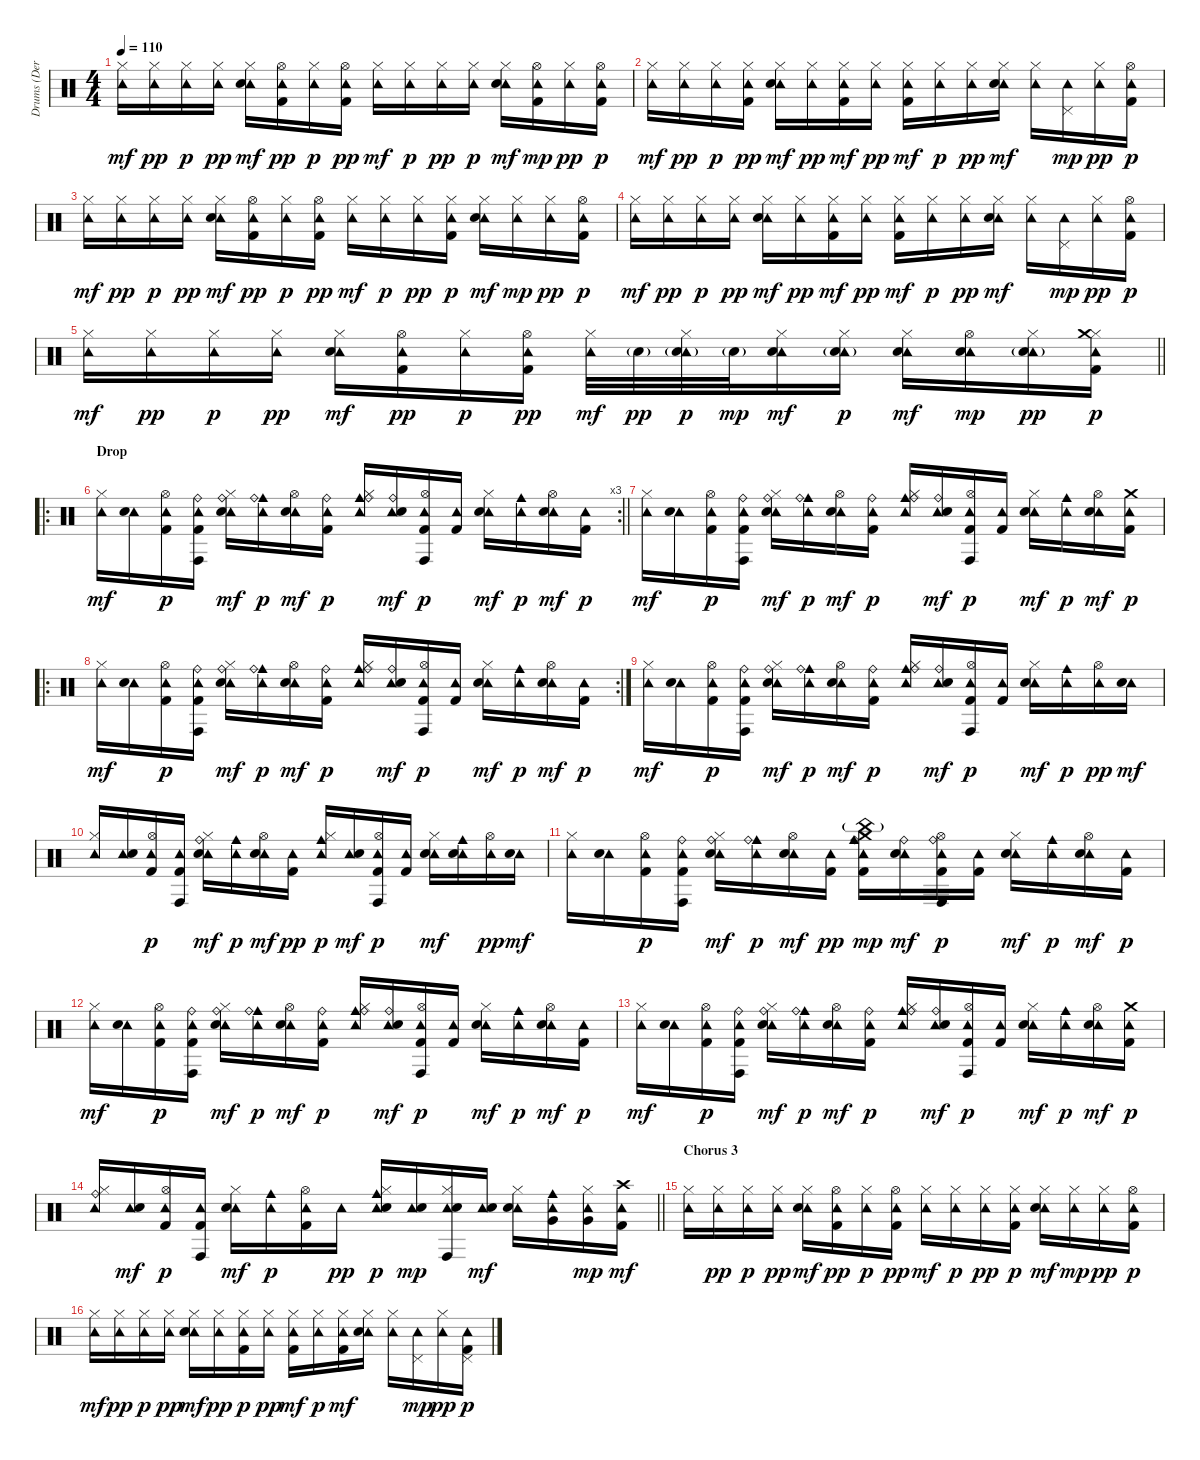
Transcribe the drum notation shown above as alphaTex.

\track ("Drums (Derrick McKenzie)" "Drums (Der") {instrument percussion}
\staff {score}
\articulation defaults
\ts (4 4)
\tempo 110
\clef neutral
\ks c
("Hi-Hat (closed)" "Tambourine (hit)").16{dy mf} ("Hi-Hat (closed)" "Tambourine (hit)").16{dy pp} ("Hi-Hat (closed)" "Tambourine (hit)").16{dy p} ("Hi-Hat (closed)" "Tambourine (hit)").16{dy pp} ("Hi-Hat (closed)" "Tambourine (hit)" "Electric Snare (hit)").16{dy mf} ("Hi-Hat (open)" "Tambourine (hit)" "Kick (hit) 2").16{dy pp} ("Hi-Hat (closed)" "Tambourine (hit)").16{dy p} ("Hi-Hat (open)" "Tambourine (hit)" "Kick (hit) 2").16{dy pp} ("Hi-Hat (closed)" "Tambourine (hit)").16{dy mf} ("Hi-Hat (closed)" "Tambourine (hit)").16{dy p} ("Hi-Hat (closed)" "Tambourine (hit)").16{dy pp} ("Hi-Hat (closed)" "Tambourine (hit)").16{dy p} ("Hi-Hat (closed)" "Tambourine (hit)" "Electric Snare (hit)").16{dy mf} ("Hi-Hat (open)" "Tambourine (hit)" "Kick (hit) 2").16{dy mp} ("Hi-Hat (closed)" "Tambourine (hit)").16{dy pp} ("Hi-Hat (open)" "Tambourine (hit)" "Kick (hit) 2").16{dy p} |
("Hi-Hat (closed)" "Tambourine (hit)").16{dy mf} ("Hi-Hat (closed)" "Tambourine (hit)").16{dy pp} ("Hi-Hat (closed)" "Tambourine (hit)").16{dy p} ("Hi-Hat (closed)" "Tambourine (hit)" "Kick (hit) 2").16{dy pp} ("Hi-Hat (closed)" "Tambourine (hit)" "Electric Snare (hit)").16{dy mf} ("Hi-Hat (closed)" "Tambourine (hit)").16{dy pp} ("Hi-Hat (closed)" "Tambourine (hit)" "Kick (hit) 2").16{dy mf} ("Hi-Hat (closed)" "Tambourine (hit)").16{dy pp} ("Hi-Hat (closed)" "Tambourine (hit)" "Kick (hit) 2").16{dy mf} ("Hi-Hat (closed)" "Tambourine (hit)").16{dy p} ("Hi-Hat (closed)" "Tambourine (hit)").16{dy pp} ("Hi-Hat (closed)" "Tambourine (hit)" "Electric Snare (hit)").16{dy mf} ("Hi-Hat (closed)" "Tambourine (hit)").16 ("Pedal Hi-Hat (hit)" "Tambourine (hit)").16{dy mp} ("Hi-Hat (closed)" "Tambourine (hit)").16{dy pp} ("Hi-Hat (open)" "Tambourine (hit)" "Kick (hit) 2").16{dy p} |
("Hi-Hat (closed)" "Tambourine (hit)").16{dy mf} ("Hi-Hat (closed)" "Tambourine (hit)").16{dy pp} ("Hi-Hat (closed)" "Tambourine (hit)").16{dy p} ("Hi-Hat (closed)" "Tambourine (hit)").16{dy pp} ("Hi-Hat (closed)" "Tambourine (hit)" "Electric Snare (hit)").16{dy mf} ("Hi-Hat (open)" "Tambourine (hit)" "Kick (hit) 2").16{dy pp} ("Hi-Hat (closed)" "Tambourine (hit)").16{dy p} ("Hi-Hat (open)" "Tambourine (hit)" "Kick (hit) 2").16{dy pp} ("Hi-Hat (closed)" "Tambourine (hit)").16{dy mf} ("Hi-Hat (closed)" "Tambourine (hit)").16{dy p} ("Hi-Hat (closed)" "Tambourine (hit)").16{dy pp} ("Hi-Hat (closed)" "Tambourine (hit)" "Kick (hit) 2").16{dy p} ("Hi-Hat (closed)" "Tambourine (hit)" "Electric Snare (hit)").16{dy mf} ("Hi-Hat (closed)" "Tambourine (hit)").16{dy mp} ("Hi-Hat (closed)" "Tambourine (hit)").16{dy pp} ("Hi-Hat (open)" "Tambourine (hit)" "Kick (hit) 2").16{dy p} |
("Hi-Hat (closed)" "Tambourine (hit)").16{dy mf} ("Hi-Hat (closed)" "Tambourine (hit)").16{dy pp} ("Hi-Hat (closed)" "Tambourine (hit)").16{dy p} ("Hi-Hat (closed)" "Tambourine (hit)").16{dy pp} ("Hi-Hat (closed)" "Tambourine (hit)" "Electric Snare (hit)").16{dy mf} ("Hi-Hat (closed)" "Tambourine (hit)").16{dy pp} ("Hi-Hat (closed)" "Tambourine (hit)" "Kick (hit) 2").16{dy mf} ("Hi-Hat (closed)" "Tambourine (hit)").16{dy pp} ("Hi-Hat (closed)" "Tambourine (hit)" "Kick (hit) 2").16{dy mf} ("Hi-Hat (closed)" "Tambourine (hit)").16{dy p} ("Hi-Hat (closed)" "Tambourine (hit)").16{dy pp} ("Hi-Hat (closed)" "Tambourine (hit)" "Electric Snare (hit)").16{dy mf} ("Hi-Hat (closed)" "Tambourine (hit)").16 ("Pedal Hi-Hat (hit)" "Tambourine (hit)").16{dy mp} ("Hi-Hat (closed)" "Tambourine (hit)").16{dy pp} ("Hi-Hat (open)" "Tambourine (hit)" "Kick (hit) 2").16{dy p} |
\barLineRight lightlight
("Hi-Hat (closed)" "Tambourine (hit)").16{dy mf} ("Hi-Hat (closed)" "Tambourine (hit)").16{dy pp} ("Hi-Hat (closed)" "Tambourine (hit)").16{dy p} ("Hi-Hat (closed)" "Tambourine (hit)").16{dy pp} ("Hi-Hat (closed)" "Tambourine (hit)" "Electric Snare (hit)").16{dy mf} ("Hi-Hat (open)" "Tambourine (hit)" "Kick (hit) 2").16{dy pp} ("Hi-Hat (closed)" "Tambourine (hit)").16{dy p} ("Hi-Hat (open)" "Tambourine (hit)" "Kick (hit) 2").16{dy pp} ("Hi-Hat (closed)" "Tambourine (hit)").32{dy mf} "Electric Snare (hit)"{g}.32{dy pp} ("Hi-Hat (closed)" "Tambourine (hit)" "Electric Snare (hit)"{g}).32{dy p} "Electric Snare (hit)"{g}.32{dy mp} ("Hi-Hat (closed)" "Tambourine (hit)" "Electric Snare (hit)").16{dy mf} ("Hi-Hat (closed)" "Tambourine (hit)" "Electric Snare (hit)"{g}).16{dy p} ("Hi-Hat (closed)" "Tambourine (hit)" "Electric Snare (hit)").16{dy mf} ("Hi-Hat (open)" "Tambourine (hit)" "Electric Snare (hit)").16{dy mp} ("Hi-Hat (closed)" "Tambourine (hit)" "Electric Snare (hit)"{g}).16{dy pp} ("Hi-Hat (closed)" "Tambourine (hit)" "Crash medium (hit)" "Kick (hit) 2").16{dy p} |
\ro
\rc 3
\section ("" "Drop")
\barLineRight lightlight
("Hi-Hat (closed)" "Tambourine (hit)").16{dy mf} ("Tambourine (hit)" "Electric Snare (hit)").16 ("Hi-Hat (open)" "Tambourine (hit)" "Kick (hit) 2").16{dy p} ("Tambourine (hit)" "Conga high (hit)" "Ride (bell)" "Kick (hit) 2").16 ("Hi-Hat (closed)" "Tambourine (hit)" "Ride (bell)" "Electric Snare (hit)").16{dy mf} ("Tambourine (hit)" "Cowbell medium (hit)" "Ride (bell)").16{dy p} ("Hi-Hat (open)" "Tambourine (hit)" "Electric Snare (hit)").16{dy mf} ("Tambourine (hit)" "Ride (bell)" "Kick (hit) 2").16{dy p} ("Hi-Hat (closed)" "Tambourine (hit)" "Cowbell medium (hit)" "Ride (bell)").16 ("Tambourine (hit)" "Ride (bell)" "Electric Snare (hit)").16{dy mf} ("Hi-Hat (open)" "Tambourine (hit)" "Conga high (hit)" "Kick (hit) 2").16{dy p} ("Tambourine (hit)" "Kick (hit) 2").16 ("Hi-Hat (closed)" "Tambourine (hit)" "Electric Snare (hit)").16{dy mf} ("Tambourine (hit)" "Cowbell medium (hit)").16{dy p} ("Hi-Hat (open)" "Tambourine (hit)" "Electric Snare (hit)").16{dy mf} ("Tambourine (hit)" "Kick (hit) 2").16{dy p} |
("Hi-Hat (closed)" "Tambourine (hit)").16{dy mf} ("Tambourine (hit)" "Electric Snare (hit)").16 ("Hi-Hat (open)" "Tambourine (hit)" "Kick (hit) 2").16{dy p} ("Tambourine (hit)" "Conga high (hit)" "Ride (bell)" "Kick (hit) 2").16 ("Hi-Hat (closed)" "Tambourine (hit)" "Ride (bell)" "Electric Snare (hit)").16{dy mf} ("Tambourine (hit)" "Cowbell medium (hit)" "Ride (bell)").16{dy p} ("Hi-Hat (open)" "Tambourine (hit)" "Electric Snare (hit)").16{dy mf} ("Tambourine (hit)" "Ride (bell)" "Kick (hit) 2").16{dy p} ("Hi-Hat (closed)" "Tambourine (hit)" "Cowbell medium (hit)" "Ride (bell)").16 ("Tambourine (hit)" "Ride (bell)" "Electric Snare (hit)").16{dy mf} ("Hi-Hat (open)" "Tambourine (hit)" "Conga high (hit)" "Kick (hit) 2").16{dy p} ("Tambourine (hit)" "Kick (hit) 2").16 ("Hi-Hat (closed)" "Tambourine (hit)" "Electric Snare (hit)").16{dy mf} ("Tambourine (hit)" "Cowbell medium (hit)").16{dy p} ("Hi-Hat (open)" "Tambourine (hit)" "Electric Snare (hit)").16{dy mf} ("Crash medium (hit)" "Tambourine (hit)" "Kick (hit) 2").16{dy p} |
\ro
\rc 2
("Hi-Hat (closed)" "Tambourine (hit)").16{dy mf} ("Tambourine (hit)" "Electric Snare (hit)").16 ("Hi-Hat (open)" "Tambourine (hit)" "Kick (hit) 2").16{dy p} ("Tambourine (hit)" "Conga high (hit)" "Ride (bell)" "Kick (hit) 2").16 ("Hi-Hat (closed)" "Tambourine (hit)" "Ride (bell)" "Electric Snare (hit)").16{dy mf} ("Tambourine (hit)" "Cowbell medium (hit)" "Ride (bell)").16{dy p} ("Hi-Hat (open)" "Tambourine (hit)" "Electric Snare (hit)").16{dy mf} ("Tambourine (hit)" "Ride (bell)" "Kick (hit) 2").16{dy p} ("Hi-Hat (closed)" "Tambourine (hit)" "Cowbell medium (hit)" "Ride (bell)").16 ("Tambourine (hit)" "Ride (bell)" "Electric Snare (hit)").16{dy mf} ("Hi-Hat (open)" "Tambourine (hit)" "Conga high (hit)" "Kick (hit) 2").16{dy p} ("Tambourine (hit)" "Kick (hit) 2").16 ("Hi-Hat (closed)" "Tambourine (hit)" "Electric Snare (hit)").16{dy mf} ("Tambourine (hit)" "Cowbell medium (hit)").16{dy p} ("Hi-Hat (open)" "Tambourine (hit)" "Electric Snare (hit)").16{dy mf} ("Tambourine (hit)" "Kick (hit) 2").16{dy p} |
("Hi-Hat (closed)" "Tambourine (hit)").16{dy mf} ("Tambourine (hit)" "Electric Snare (hit)").16 ("Hi-Hat (open)" "Tambourine (hit)" "Kick (hit) 2").16{dy p} ("Tambourine (hit)" "Conga high (hit)" "Ride (bell)" "Kick (hit) 2").16 ("Hi-Hat (closed)" "Tambourine (hit)" "Ride (bell)" "Electric Snare (hit)").16{dy mf} ("Tambourine (hit)" "Cowbell medium (hit)" "Ride (bell)").16{dy p} ("Hi-Hat (open)" "Tambourine (hit)" "Electric Snare (hit)").16{dy mf} ("Tambourine (hit)" "Ride (bell)" "Kick (hit) 2").16{dy p} ("Hi-Hat (closed)" "Tambourine (hit)" "Cowbell medium (hit)" "Ride (bell)").16 ("Tambourine (hit)" "Ride (bell)" "Electric Snare (hit)").16{dy mf} ("Hi-Hat (open)" "Tambourine (hit)" "Conga high (hit)" "Kick (hit) 2").16{dy p} ("Tambourine (hit)" "Kick (hit) 2").16 ("Hi-Hat (closed)" "Tambourine (hit)" "Electric Snare (hit)").16{dy mf} ("Tambourine (hit)" "Cowbell medium (hit)").16{dy p} ("Hi-Hat (open)" "Tambourine (hit)").16{dy pp} ("Tambourine (hit)" "Electric Snare (hit)").16{dy mf} |
("Hi-Hat (closed)" "Tambourine (hit)").16 ("Tambourine (hit)" "Electric Snare (hit)").16 ("Hi-Hat (open)" "Tambourine (hit)" "Kick (hit) 2").16{dy p} ("Tambourine (hit)" "Conga high (hit)" "Kick (hit) 2").16 ("Hi-Hat (closed)" "Tambourine (hit)" "Ride (bell)" "Electric Snare (hit)").16{dy mf} ("Tambourine (hit)" "Cowbell medium (hit)").16{dy p} ("Hi-Hat (open)" "Tambourine (hit)" "Electric Snare (hit)").16{dy mf} ("Tambourine (hit)" "Kick (hit) 2").16{dy pp} ("Hi-Hat (closed)" "Tambourine (hit)" "Cowbell medium (hit)").16{dy p} ("Tambourine (hit)" "Electric Snare (hit)").16{dy mf} ("Hi-Hat (open)" "Tambourine (hit)" "Conga high (hit)" "Kick (hit) 2").16{dy p} ("Tambourine (hit)" "Kick (hit) 2").16 ("Hi-Hat (closed)" "Tambourine (hit)" "Electric Snare (hit)").16{dy mf} ("Tambourine (hit)" "Cowbell medium (hit)" "Electric Snare (hit)").16 ("Hi-Hat (open)" "Tambourine (hit)").16{dy pp} ("Tambourine (hit)" "Electric Snare (hit)").16{dy mf} |
("Hi-Hat (closed)" "Tambourine (hit)").16 ("Tambourine (hit)" "Electric Snare (hit)").16 ("Hi-Hat (open)" "Tambourine (hit)" "Kick (hit) 2").16{dy p} ("Tambourine (hit)" "Conga high (hit)" "Ride (bell)" "Kick (hit) 2").16 ("Hi-Hat (closed)" "Tambourine (hit)" "Ride (bell)" "Electric Snare (hit)").16{dy mf} ("Tambourine (hit)" "Cowbell medium (hit)" "Ride (bell)").16{dy p} ("Hi-Hat (open)" "Tambourine (hit)" "Electric Snare (hit)").16{dy mf} ("Tambourine (hit)" "Kick (hit) 2").16{dy pp} ("Crash medium (hit)" "Tambourine (hit)" "Cowbell medium (hit)" "Ride (bell)" "China (hit)"{g} "Kick (hit) 2").16{dy mp} ("Tambourine (hit)" "Ride (bell)" "Electric Snare (hit)").16{dy mf} ("Hi-Hat (open)" "Tambourine (hit)" "Conga high (hit)" "Ride (bell)" "Kick (hit) 2").16{dy p} ("Tambourine (hit)" "Kick (hit) 2").16 ("Hi-Hat (closed)" "Tambourine (hit)" "Electric Snare (hit)").16{dy mf} ("Tambourine (hit)" "Cowbell medium (hit)").16{dy p} ("Hi-Hat (open)" "Tambourine (hit)" "Electric Snare (hit)").16{dy mf} ("Tambourine (hit)" "Kick (hit) 2").16{dy p} |
("Hi-Hat (closed)" "Tambourine (hit)").16{dy mf} ("Tambourine (hit)" "Electric Snare (hit)").16 ("Hi-Hat (open)" "Tambourine (hit)" "Kick (hit) 2").16{dy p} ("Tambourine (hit)" "Conga high (hit)" "Ride (bell)" "Kick (hit) 2").16 ("Hi-Hat (closed)" "Tambourine (hit)" "Ride (bell)" "Electric Snare (hit)").16{dy mf} ("Tambourine (hit)" "Cowbell medium (hit)" "Ride (bell)").16{dy p} ("Hi-Hat (open)" "Tambourine (hit)" "Electric Snare (hit)").16{dy mf} ("Tambourine (hit)" "Ride (bell)" "Kick (hit) 2").16{dy p} ("Hi-Hat (closed)" "Tambourine (hit)" "Cowbell medium (hit)" "Ride (bell)").16 ("Tambourine (hit)" "Ride (bell)" "Electric Snare (hit)").16{dy mf} ("Hi-Hat (open)" "Tambourine (hit)" "Conga high (hit)" "Kick (hit) 2").16{dy p} ("Tambourine (hit)" "Kick (hit) 2").16 ("Hi-Hat (closed)" "Tambourine (hit)" "Electric Snare (hit)").16{dy mf} ("Tambourine (hit)" "Cowbell medium (hit)").16{dy p} ("Hi-Hat (open)" "Tambourine (hit)" "Electric Snare (hit)").16{dy mf} ("Tambourine (hit)" "Kick (hit) 2").16{dy p} |
("Hi-Hat (closed)" "Tambourine (hit)").16{dy mf} ("Tambourine (hit)" "Electric Snare (hit)").16 ("Hi-Hat (open)" "Tambourine (hit)" "Kick (hit) 2").16{dy p} ("Tambourine (hit)" "Conga high (hit)" "Ride (bell)" "Kick (hit) 2").16 ("Hi-Hat (closed)" "Tambourine (hit)" "Ride (bell)" "Electric Snare (hit)").16{dy mf} ("Tambourine (hit)" "Cowbell medium (hit)" "Ride (bell)").16{dy p} ("Hi-Hat (open)" "Tambourine (hit)" "Electric Snare (hit)").16{dy mf} ("Tambourine (hit)" "Ride (bell)" "Kick (hit) 2").16{dy p} ("Hi-Hat (closed)" "Tambourine (hit)" "Cowbell medium (hit)" "Ride (bell)").16 ("Tambourine (hit)" "Ride (bell)" "Electric Snare (hit)").16{dy mf} ("Hi-Hat (open)" "Tambourine (hit)" "Conga high (hit)" "Kick (hit) 2").16{dy p} ("Tambourine (hit)" "Kick (hit) 2").16 ("Hi-Hat (closed)" "Tambourine (hit)" "Electric Snare (hit)").16{dy mf} ("Tambourine (hit)" "Cowbell medium (hit)").16{dy p} ("Hi-Hat (open)" "Tambourine (hit)" "Electric Snare (hit)").16{dy mf} ("Crash medium (hit)" "Tambourine (hit)" "Kick (hit) 2").16{dy p} |
\barLineRight lightlight
("Hi-Hat (closed)" "Tambourine (hit)" "Ride (bell)").16 ("Tambourine (hit)" "Electric Snare (hit)").16{dy mf} ("Hi-Hat (open)" "Tambourine (hit)" "Kick (hit) 2").16{dy p} ("Tambourine (hit)" "Conga high (hit)" "Kick (hit) 2").16 ("Hi-Hat (closed)" "Tambourine (hit)" "Electric Snare (hit)").16{dy mf} ("Tambourine (hit)" "Cowbell medium (hit)").16{dy p} ("Hi-Hat (open)" "Tambourine (hit)" "Kick (hit) 2").16 "Tambourine (hit)".16{dy pp} ("Hi-Hat (closed)" "Tambourine (hit)" "Cowbell medium (hit)" "Electric Snare (hit)").16{dy p} ("Tambourine (hit)" "Electric Snare (hit)").16{dy mp} ("Hi-Hat (closed)" "Tambourine (hit)" "Conga high (hit)" "Electric Snare (hit)").16 ("Tambourine (hit)" "Electric Snare (hit)").16{dy mf} ("Hi-Hat (closed)" "Tambourine (hit)" "Electric Snare (hit)").16 ("Tambourine (hit)" "Cowbell medium (hit)" "Very Low Tom (hit)").16 ("Hi-Hat (closed)" "Tambourine (hit)" "Very Low Tom (hit)").16{dy mp} ("Tambourine (hit)" "Crash high (hit)" "Kick (hit) 2").16{dy mf} |
\section ("" "Chorus 3")
("Hi-Hat (closed)" "Tambourine (hit)").16 ("Hi-Hat (closed)" "Tambourine (hit)").16{dy pp} ("Hi-Hat (closed)" "Tambourine (hit)").16{dy p} ("Hi-Hat (closed)" "Tambourine (hit)").16{dy pp} ("Hi-Hat (closed)" "Tambourine (hit)" "Electric Snare (hit)").16{dy mf} ("Hi-Hat (open)" "Tambourine (hit)" "Kick (hit) 2").16{dy pp} ("Hi-Hat (closed)" "Tambourine (hit)").16{dy p} ("Hi-Hat (open)" "Tambourine (hit)" "Kick (hit) 2").16{dy pp} ("Hi-Hat (closed)" "Tambourine (hit)").16{dy mf} ("Hi-Hat (closed)" "Tambourine (hit)").16{dy p} ("Hi-Hat (closed)" "Tambourine (hit)").16{dy pp} ("Hi-Hat (closed)" "Tambourine (hit)" "Kick (hit) 2").16{dy p} ("Hi-Hat (closed)" "Tambourine (hit)" "Electric Snare (hit)").16{dy mf} ("Hi-Hat (closed)" "Tambourine (hit)").16{dy mp} ("Hi-Hat (closed)" "Tambourine (hit)").16{dy pp} ("Hi-Hat (open)" "Tambourine (hit)" "Kick (hit) 2").16{dy p} |
("Hi-Hat (closed)" "Tambourine (hit)").16{dy mf} ("Hi-Hat (closed)" "Tambourine (hit)").16{dy pp} ("Hi-Hat (closed)" "Tambourine (hit)").16{dy p} ("Hi-Hat (closed)" "Tambourine (hit)").16{dy pp} ("Hi-Hat (closed)" "Tambourine (hit)" "Electric Snare (hit)").16{dy mf} ("Hi-Hat (closed)" "Tambourine (hit)").16{dy pp} ("Hi-Hat (closed)" "Tambourine (hit)" "Kick (hit) 2").16{dy p} ("Hi-Hat (closed)" "Tambourine (hit)").16{dy pp} ("Hi-Hat (closed)" "Tambourine (hit)" "Kick (hit) 2").16{dy mf} ("Hi-Hat (closed)" "Tambourine (hit)").16{dy p} ("Hi-Hat (closed)" "Tambourine (hit)" "Kick (hit) 2").16{dy mf} ("Hi-Hat (closed)" "Tambourine (hit)" "Electric Snare (hit)").16 ("Hi-Hat (closed)" "Tambourine (hit)").16 ("Pedal Hi-Hat (hit)" "Tambourine (hit)").16{dy mp} ("Hi-Hat (closed)" "Tambourine (hit)").16{dy pp} ("Pedal Hi-Hat (hit)" "Tambourine (hit)" "Kick (hit) 2").16{dy p}
